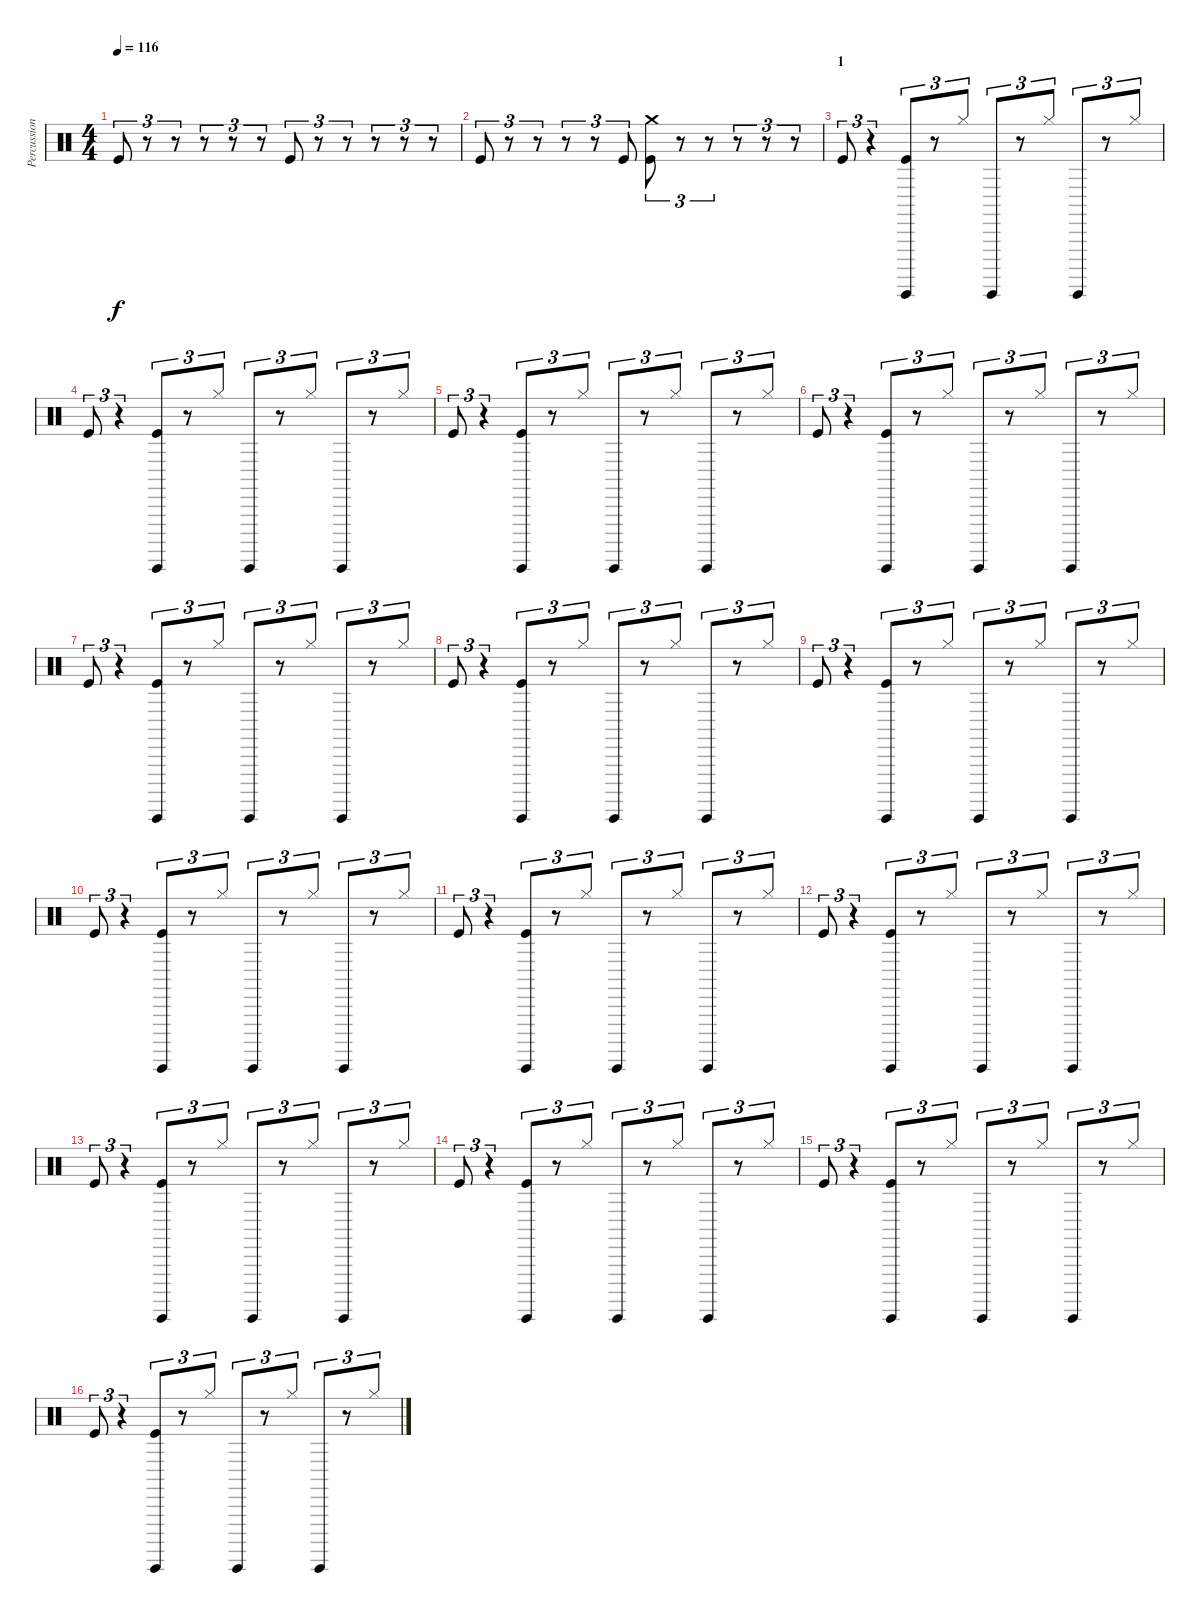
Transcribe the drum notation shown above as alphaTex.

\track ("Percussions" "Percussion") {instrument percussion}
\staff {score}
\articulation defaults
\ts (4 4)
\tempo 116
\clef neutral
\ks c "Kick (hit)".8{tu (3 2) dy f}
r.8{tu (3 2)} r.8{tu (3 2)} r.8{tu (3 2)} r.8{tu (3 2)} r.8{tu (3 2)} "Kick (hit)".8{tu (3 2)} r.8{tu (3 2)} r.8{tu (3 2)} r.8{tu (3 2)} r.8{tu (3 2)} r.8{tu (3 2)} |
"Kick (hit)".8{tu (3 2)} r.8{tu (3 2)} r.8{tu (3 2)} r.8{tu (3 2)} r.8{tu (3 2)} "Kick (hit)".8{tu (3 2)} ("Crash medium (hit)" "Kick (hit)").8{tu (3 2)} r.8{tu (3 2)} r.8{tu (3 2)} r.8{tu (3 2)} r.8{tu (3 2)} r.8{tu (3 2)} |
\section ("" "1")
"Kick (hit)".8{tu (3 2)} r.4{tu (3 2)} ("Guiro (hit)" "Kick (hit)").8{tu (3 2)} r.8{tu (3 2)} "Hi-Hat (closed)".8{tu (3 2)} "Guiro (hit)".8{tu (3 2)} r.8{tu (3 2)} "Hi-Hat (closed)".8{tu (3 2)} "Guiro (hit)".8{tu (3 2)} r.8{tu (3 2)} "Hi-Hat (closed)".8{tu (3 2)} |
"Kick (hit)".8{tu (3 2)} r.4{tu (3 2)} ("Guiro (hit)" "Kick (hit)").8{tu (3 2)} r.8{tu (3 2)} "Hi-Hat (closed)".8{tu (3 2)} "Guiro (hit)".8{tu (3 2)} r.8{tu (3 2)} "Hi-Hat (closed)".8{tu (3 2)} "Guiro (hit)".8{tu (3 2)} r.8{tu (3 2)} "Hi-Hat (closed)".8{tu (3 2)} |
"Kick (hit)".8{tu (3 2)} r.4{tu (3 2)} ("Guiro (hit)" "Kick (hit)").8{tu (3 2)} r.8{tu (3 2)} "Hi-Hat (closed)".8{tu (3 2)} "Guiro (hit)".8{tu (3 2)} r.8{tu (3 2)} "Hi-Hat (closed)".8{tu (3 2)} "Guiro (hit)".8{tu (3 2)} r.8{tu (3 2)} "Hi-Hat (closed)".8{tu (3 2)} |
"Kick (hit)".8{tu (3 2)} r.4{tu (3 2)} ("Guiro (hit)" "Kick (hit)").8{tu (3 2)} r.8{tu (3 2)} "Hi-Hat (closed)".8{tu (3 2)} "Guiro (hit)".8{tu (3 2)} r.8{tu (3 2)} "Hi-Hat (closed)".8{tu (3 2)} "Guiro (hit)".8{tu (3 2)} r.8{tu (3 2)} "Hi-Hat (closed)".8{tu (3 2)} |
"Kick (hit)".8{tu (3 2)} r.4{tu (3 2)} ("Guiro (hit)" "Kick (hit)").8{tu (3 2)} r.8{tu (3 2)} "Hi-Hat (closed)".8{tu (3 2)} "Guiro (hit)".8{tu (3 2)} r.8{tu (3 2)} "Hi-Hat (closed)".8{tu (3 2)} "Guiro (hit)".8{tu (3 2)} r.8{tu (3 2)} "Hi-Hat (closed)".8{tu (3 2)} |
"Kick (hit)".8{tu (3 2)} r.4{tu (3 2)} ("Guiro (hit)" "Kick (hit)").8{tu (3 2)} r.8{tu (3 2)} "Hi-Hat (closed)".8{tu (3 2)} "Guiro (hit)".8{tu (3 2)} r.8{tu (3 2)} "Hi-Hat (closed)".8{tu (3 2)} "Guiro (hit)".8{tu (3 2)} r.8{tu (3 2)} "Hi-Hat (closed)".8{tu (3 2)} |
"Kick (hit)".8{tu (3 2)} r.4{tu (3 2)} ("Guiro (hit)" "Kick (hit)").8{tu (3 2)} r.8{tu (3 2)} "Hi-Hat (closed)".8{tu (3 2)} "Guiro (hit)".8{tu (3 2)} r.8{tu (3 2)} "Hi-Hat (closed)".8{tu (3 2)} "Guiro (hit)".8{tu (3 2)} r.8{tu (3 2)} "Hi-Hat (closed)".8{tu (3 2)} |
"Kick (hit)".8{tu (3 2)} r.4{tu (3 2)} ("Guiro (hit)" "Kick (hit)").8{tu (3 2)} r.8{tu (3 2)} "Hi-Hat (closed)".8{tu (3 2)} "Guiro (hit)".8{tu (3 2)} r.8{tu (3 2)} "Hi-Hat (closed)".8{tu (3 2)} "Guiro (hit)".8{tu (3 2)} r.8{tu (3 2)} "Hi-Hat (closed)".8{tu (3 2)} |
"Kick (hit)".8{tu (3 2)} r.4{tu (3 2)} ("Guiro (hit)" "Kick (hit)").8{tu (3 2)} r.8{tu (3 2)} "Hi-Hat (closed)".8{tu (3 2)} "Guiro (hit)".8{tu (3 2)} r.8{tu (3 2)} "Hi-Hat (closed)".8{tu (3 2)} "Guiro (hit)".8{tu (3 2)} r.8{tu (3 2)} "Hi-Hat (closed)".8{tu (3 2)} |
"Kick (hit)".8{tu (3 2)} r.4{tu (3 2)} ("Guiro (hit)" "Kick (hit)").8{tu (3 2)} r.8{tu (3 2)} "Hi-Hat (closed)".8{tu (3 2)} "Guiro (hit)".8{tu (3 2)} r.8{tu (3 2)} "Hi-Hat (closed)".8{tu (3 2)} "Guiro (hit)".8{tu (3 2)} r.8{tu (3 2)} "Hi-Hat (closed)".8{tu (3 2)} |
"Kick (hit)".8{tu (3 2)} r.4{tu (3 2)} ("Guiro (hit)" "Kick (hit)").8{tu (3 2)} r.8{tu (3 2)} "Hi-Hat (closed)".8{tu (3 2)} "Guiro (hit)".8{tu (3 2)} r.8{tu (3 2)} "Hi-Hat (closed)".8{tu (3 2)} "Guiro (hit)".8{tu (3 2)} r.8{tu (3 2)} "Hi-Hat (closed)".8{tu (3 2)} |
"Kick (hit)".8{tu (3 2)} r.4{tu (3 2)} ("Guiro (hit)" "Kick (hit)").8{tu (3 2)} r.8{tu (3 2)} "Hi-Hat (closed)".8{tu (3 2)} "Guiro (hit)".8{tu (3 2)} r.8{tu (3 2)} "Hi-Hat (closed)".8{tu (3 2)} "Guiro (hit)".8{tu (3 2)} r.8{tu (3 2)} "Hi-Hat (closed)".8{tu (3 2)} |
"Kick (hit)".8{tu (3 2)} r.4{tu (3 2)} ("Guiro (hit)" "Kick (hit)").8{tu (3 2)} r.8{tu (3 2)} "Hi-Hat (closed)".8{tu (3 2)} "Guiro (hit)".8{tu (3 2)} r.8{tu (3 2)} "Hi-Hat (closed)".8{tu (3 2)} "Guiro (hit)".8{tu (3 2)} r.8{tu (3 2)} "Hi-Hat (closed)".8{tu (3 2)} |
"Kick (hit)".8{tu (3 2)} r.4{tu (3 2)} ("Guiro (hit)" "Kick (hit)").8{tu (3 2)} r.8{tu (3 2)} "Hi-Hat (closed)".8{tu (3 2)} "Guiro (hit)".8{tu (3 2)} r.8{tu (3 2)} "Hi-Hat (closed)".8{tu (3 2)} "Guiro (hit)".8{tu (3 2)} r.8{tu (3 2)} "Hi-Hat (closed)".8{tu (3 2)}
